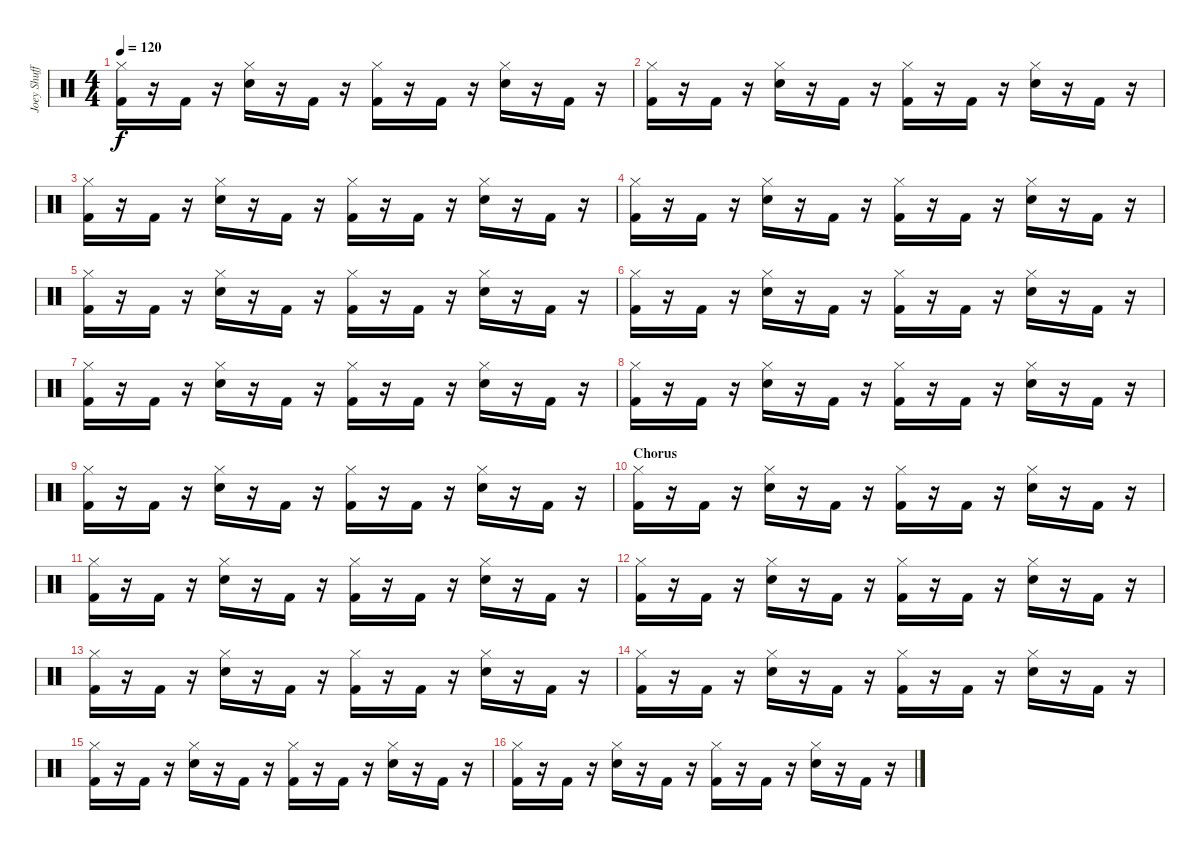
\track ("Joey Shuffield" "Joey Shuff") {instrument percussion}
\staff {score}
\articulation defaults
\ts (4 4)
\tempo 120
\clef neutral
\ks c
("Kick (hit) 2" "Hi-Hat (closed)").16{dy f} r.16 "Kick (hit) 2".16 r.16 ("Snare (hit) 2" "Hi-Hat (closed)").16 r.16 "Kick (hit) 2".16 r.16 ("Kick (hit) 2" "Hi-Hat (closed)").16 r.16 "Kick (hit) 2".16 r.16 ("Snare (hit) 2" "Hi-Hat (closed)").16 r.16 "Kick (hit) 2".16 r.16 |
("Kick (hit) 2" "Hi-Hat (closed)").16 r.16 "Kick (hit) 2".16 r.16 ("Snare (hit) 2" "Hi-Hat (closed)").16 r.16 "Kick (hit) 2".16 r.16 ("Kick (hit) 2" "Hi-Hat (closed)").16 r.16 "Kick (hit) 2".16 r.16 ("Snare (hit) 2" "Hi-Hat (closed)").16 r.16 "Kick (hit) 2".16 r.16 |
("Kick (hit) 2" "Hi-Hat (closed)").16 r.16 "Kick (hit) 2".16 r.16 ("Snare (hit) 2" "Hi-Hat (closed)").16 r.16 "Kick (hit) 2".16 r.16 ("Kick (hit) 2" "Hi-Hat (closed)").16 r.16 "Kick (hit) 2".16 r.16 ("Snare (hit) 2" "Hi-Hat (closed)").16 r.16 "Kick (hit) 2".16 r.16 |
("Kick (hit) 2" "Hi-Hat (closed)").16 r.16 "Kick (hit) 2".16 r.16 ("Snare (hit) 2" "Hi-Hat (closed)").16 r.16 "Kick (hit) 2".16 r.16 ("Kick (hit) 2" "Hi-Hat (closed)").16 r.16 "Kick (hit) 2".16 r.16 ("Snare (hit) 2" "Hi-Hat (closed)").16 r.16 "Kick (hit) 2".16 r.16 |
("Kick (hit) 2" "Hi-Hat (closed)").16 r.16 "Kick (hit) 2".16 r.16 ("Snare (hit) 2" "Hi-Hat (closed)").16 r.16 "Kick (hit) 2".16 r.16 ("Kick (hit) 2" "Hi-Hat (closed)").16 r.16 "Kick (hit) 2".16 r.16 ("Snare (hit) 2" "Hi-Hat (closed)").16 r.16 "Kick (hit) 2".16 r.16 |
("Kick (hit) 2" "Hi-Hat (closed)").16 r.16 "Kick (hit) 2".16 r.16 ("Snare (hit) 2" "Hi-Hat (closed)").16 r.16 "Kick (hit) 2".16 r.16 ("Kick (hit) 2" "Hi-Hat (closed)").16 r.16 "Kick (hit) 2".16 r.16 ("Snare (hit) 2" "Hi-Hat (closed)").16 r.16 "Kick (hit) 2".16 r.16 |
("Kick (hit) 2" "Hi-Hat (closed)").16 r.16 "Kick (hit) 2".16 r.16 ("Snare (hit) 2" "Hi-Hat (closed)").16 r.16 "Kick (hit) 2".16 r.16 ("Kick (hit) 2" "Hi-Hat (closed)").16 r.16 "Kick (hit) 2".16 r.16 ("Snare (hit) 2" "Hi-Hat (closed)").16 r.16 "Kick (hit) 2".16 r.16 |
("Kick (hit) 2" "Hi-Hat (closed)").16 r.16 "Kick (hit) 2".16 r.16 ("Snare (hit) 2" "Hi-Hat (closed)").16 r.16 "Kick (hit) 2".16 r.16 ("Kick (hit) 2" "Hi-Hat (closed)").16 r.16 "Kick (hit) 2".16 r.16 ("Snare (hit) 2" "Hi-Hat (closed)").16 r.16 "Kick (hit) 2".16 r.16 |
("Kick (hit) 2" "Hi-Hat (closed)").16 r.16 "Kick (hit) 2".16 r.16 ("Snare (hit) 2" "Hi-Hat (closed)").16 r.16 "Kick (hit) 2".16 r.16 ("Kick (hit) 2" "Hi-Hat (closed)").16 r.16 "Kick (hit) 2".16 r.16 ("Snare (hit) 2" "Hi-Hat (closed)").16 r.16 "Kick (hit) 2".16 r.16 |
\section ("" "Chorus")
("Kick (hit) 2" "Hi-Hat (closed)").16 r.16 "Kick (hit) 2".16 r.16 ("Snare (hit) 2" "Hi-Hat (closed)").16 r.16 "Kick (hit) 2".16 r.16 ("Kick (hit) 2" "Hi-Hat (closed)").16 r.16 "Kick (hit) 2".16 r.16 ("Snare (hit) 2" "Hi-Hat (closed)").16 r.16 "Kick (hit) 2".16 r.16 |
("Kick (hit) 2" "Hi-Hat (closed)").16 r.16 "Kick (hit) 2".16 r.16 ("Snare (hit) 2" "Hi-Hat (closed)").16 r.16 "Kick (hit) 2".16 r.16 ("Kick (hit) 2" "Hi-Hat (closed)").16 r.16 "Kick (hit) 2".16 r.16 ("Snare (hit) 2" "Hi-Hat (closed)").16 r.16 "Kick (hit) 2".16 r.16 |
("Kick (hit) 2" "Hi-Hat (closed)").16 r.16 "Kick (hit) 2".16 r.16 ("Snare (hit) 2" "Hi-Hat (closed)").16 r.16 "Kick (hit) 2".16 r.16 ("Kick (hit) 2" "Hi-Hat (closed)").16 r.16 "Kick (hit) 2".16 r.16 ("Snare (hit) 2" "Hi-Hat (closed)").16 r.16 "Kick (hit) 2".16 r.16 |
("Kick (hit) 2" "Hi-Hat (closed)").16 r.16 "Kick (hit) 2".16 r.16 ("Snare (hit) 2" "Hi-Hat (closed)").16 r.16 "Kick (hit) 2".16 r.16 ("Kick (hit) 2" "Hi-Hat (closed)").16 r.16 "Kick (hit) 2".16 r.16 ("Snare (hit) 2" "Hi-Hat (closed)").16 r.16 "Kick (hit) 2".16 r.16 |
("Kick (hit) 2" "Hi-Hat (closed)").16 r.16 "Kick (hit) 2".16 r.16 ("Snare (hit) 2" "Hi-Hat (closed)").16 r.16 "Kick (hit) 2".16 r.16 ("Kick (hit) 2" "Hi-Hat (closed)").16 r.16 "Kick (hit) 2".16 r.16 ("Snare (hit) 2" "Hi-Hat (closed)").16 r.16 "Kick (hit) 2".16 r.16 |
("Kick (hit) 2" "Hi-Hat (closed)").16 r.16 "Kick (hit) 2".16 r.16 ("Snare (hit) 2" "Hi-Hat (closed)").16 r.16 "Kick (hit) 2".16 r.16 ("Kick (hit) 2" "Hi-Hat (closed)").16 r.16 "Kick (hit) 2".16 r.16 ("Snare (hit) 2" "Hi-Hat (closed)").16 r.16 "Kick (hit) 2".16 r.16 |
("Kick (hit) 2" "Hi-Hat (closed)").16 r.16 "Kick (hit) 2".16 r.16 ("Snare (hit) 2" "Hi-Hat (closed)").16 r.16 "Kick (hit) 2".16 r.16 ("Kick (hit) 2" "Hi-Hat (closed)").16 r.16 "Kick (hit) 2".16 r.16 ("Snare (hit) 2" "Hi-Hat (closed)").16 r.16 "Kick (hit) 2".16 r.16
